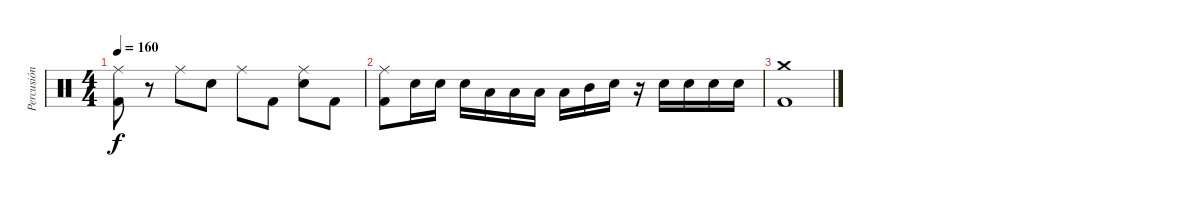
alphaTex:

\track ("Percusión" "Percusión") {instrument percussion}
\staff {score}
\articulation defaults
\ts (4 4)
\tempo 160
\clef neutral
\ks c
("Ride (middle)" "Kick (hit) 2").8{dy f} r.8 "Ride (middle)".8 "Snare (hit) 2".8 "Ride (middle)".8 "Kick (hit) 2".8 ("Ride (middle)" "Snare (hit) 2").8 "Kick (hit) 2".8 |
("Ride (middle)" "Kick (hit) 2").8 "Snare (hit) 2".16 "Snare (hit) 2".16 "Snare (hit) 2".16 "Low Tom (hit)".16 "Low Tom (hit)".16 "Low Tom (hit)".16 "Low Tom (hit)".16 "Mid Tom (hit)".16 "Snare (hit) 2".16 r.16 "Snare (hit) 2".16 "Snare (hit) 2".16 "Snare (hit) 2".16 "Snare (hit) 2".16 |
("Crash medium (hit)" "Kick (hit) 2").1
